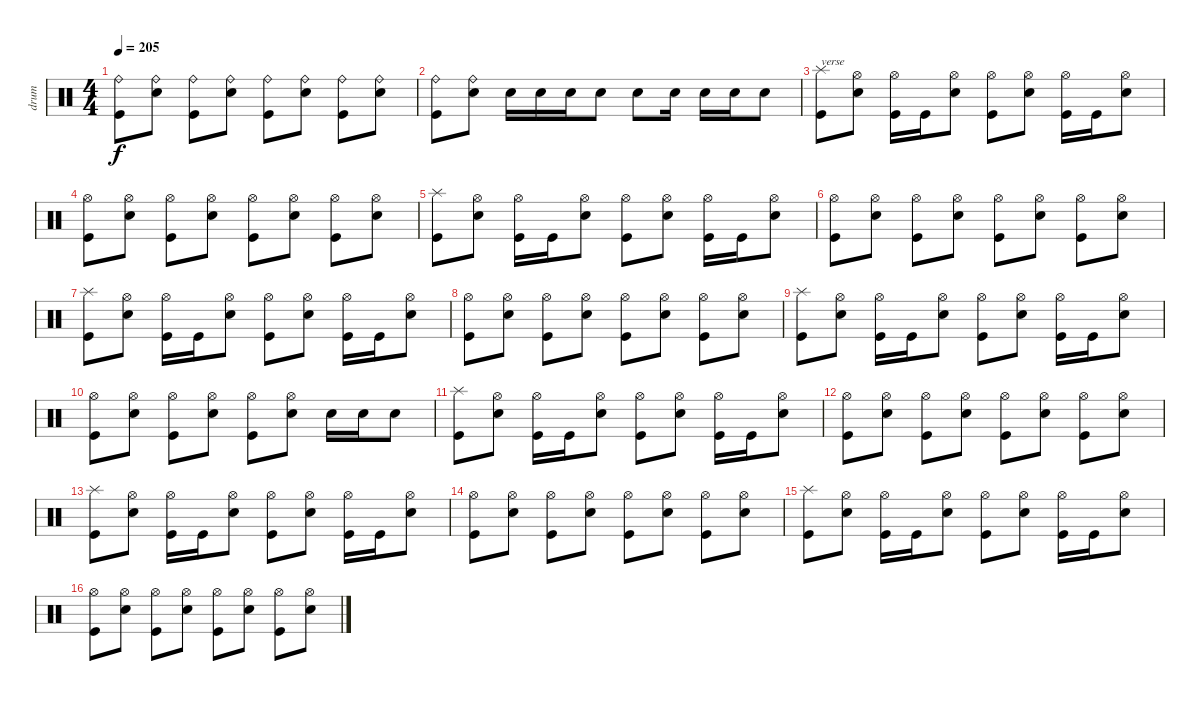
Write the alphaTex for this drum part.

\track ("drum" "drum") {instrument percussion}
\staff {score}
\articulation defaults
\ts (4 4)
\tempo 205
\clef neutral
\ks c
("Kick (hit)" "Ride (bell)").8{dy f} ("Electric Snare (hit)" "Ride (bell)").8 ("Kick (hit)" "Ride (bell)").8 ("Electric Snare (hit)" "Ride (bell)").8 ("Kick (hit)" "Ride (bell)").8 ("Electric Snare (hit)" "Ride (bell)").8 ("Kick (hit)" "Ride (bell)").8 ("Electric Snare (hit)" "Ride (bell)").8 |
("Kick (hit)" "Ride (bell)").8 ("Electric Snare (hit)" "Ride (bell)").8 "Electric Snare (hit)".16 "Electric Snare (hit)".16 "Electric Snare (hit)".16 "Electric Snare (hit)".8 "Electric Snare (hit)".8 "Electric Snare (hit)".16 "Electric Snare (hit)".16 "Electric Snare (hit)".16 "Electric Snare (hit)".8 |
("Kick (hit)" "Splash (hit)").8{txt "verse"} ("Electric Snare (hit)" "Hi-Hat (open)").8 ("Kick (hit)" "Hi-Hat (open)").16 "Kick (hit)".16 ("Electric Snare (hit)" "Hi-Hat (open)").8 ("Kick (hit)" "Hi-Hat (open)").8 ("Electric Snare (hit)" "Hi-Hat (open)").8 ("Kick (hit)" "Hi-Hat (open)").16 "Kick (hit)".16 ("Electric Snare (hit)" "Hi-Hat (open)").8 |
("Kick (hit)" "Hi-Hat (open)").8 ("Electric Snare (hit)" "Hi-Hat (open)").8 ("Kick (hit)" "Hi-Hat (open)").8 ("Electric Snare (hit)" "Hi-Hat (open)").8 ("Kick (hit)" "Hi-Hat (open)").8 ("Electric Snare (hit)" "Hi-Hat (open)").8 ("Kick (hit)" "Hi-Hat (open)").8 ("Electric Snare (hit)" "Hi-Hat (open)").8 |
("Kick (hit)" "Splash (hit)").8 ("Electric Snare (hit)" "Hi-Hat (open)").8 ("Kick (hit)" "Hi-Hat (open)").16 "Kick (hit)".16 ("Electric Snare (hit)" "Hi-Hat (open)").8 ("Kick (hit)" "Hi-Hat (open)").8 ("Electric Snare (hit)" "Hi-Hat (open)").8 ("Kick (hit)" "Hi-Hat (open)").16 "Kick (hit)".16 ("Electric Snare (hit)" "Hi-Hat (open)").8 |
("Kick (hit)" "Hi-Hat (open)").8 ("Electric Snare (hit)" "Hi-Hat (open)").8 ("Kick (hit)" "Hi-Hat (open)").8 ("Electric Snare (hit)" "Hi-Hat (open)").8 ("Kick (hit)" "Hi-Hat (open)").8 ("Electric Snare (hit)" "Hi-Hat (open)").8 ("Kick (hit)" "Hi-Hat (open)").8 ("Electric Snare (hit)" "Hi-Hat (open)").8 |
("Kick (hit)" "Splash (hit)").8 ("Electric Snare (hit)" "Hi-Hat (open)").8 ("Kick (hit)" "Hi-Hat (open)").16 "Kick (hit)".16 ("Electric Snare (hit)" "Hi-Hat (open)").8 ("Kick (hit)" "Hi-Hat (open)").8 ("Electric Snare (hit)" "Hi-Hat (open)").8 ("Kick (hit)" "Hi-Hat (open)").16 "Kick (hit)".16 ("Electric Snare (hit)" "Hi-Hat (open)").8 |
("Kick (hit)" "Hi-Hat (open)").8 ("Electric Snare (hit)" "Hi-Hat (open)").8 ("Kick (hit)" "Hi-Hat (open)").8 ("Electric Snare (hit)" "Hi-Hat (open)").8 ("Kick (hit)" "Hi-Hat (open)").8 ("Electric Snare (hit)" "Hi-Hat (open)").8 ("Kick (hit)" "Hi-Hat (open)").8 ("Electric Snare (hit)" "Hi-Hat (open)").8 |
("Kick (hit)" "Splash (hit)").8 ("Electric Snare (hit)" "Hi-Hat (open)").8 ("Kick (hit)" "Hi-Hat (open)").16 "Kick (hit)".16 ("Electric Snare (hit)" "Hi-Hat (open)").8 ("Kick (hit)" "Hi-Hat (open)").8 ("Electric Snare (hit)" "Hi-Hat (open)").8 ("Kick (hit)" "Hi-Hat (open)").16 "Kick (hit)".16 ("Electric Snare (hit)" "Hi-Hat (open)").8 |
("Kick (hit)" "Hi-Hat (open)").8 ("Electric Snare (hit)" "Hi-Hat (open)").8 ("Kick (hit)" "Hi-Hat (open)").8 ("Electric Snare (hit)" "Hi-Hat (open)").8 ("Kick (hit)" "Hi-Hat (open)").8 ("Electric Snare (hit)" "Hi-Hat (open)").8 "Electric Snare (hit)".16 "Electric Snare (hit)".16 "Electric Snare (hit)".8 |
("Kick (hit)" "Splash (hit)").8 ("Electric Snare (hit)" "Hi-Hat (open)").8 ("Kick (hit)" "Hi-Hat (open)").16 "Kick (hit)".16 ("Electric Snare (hit)" "Hi-Hat (open)").8 ("Kick (hit)" "Hi-Hat (open)").8 ("Electric Snare (hit)" "Hi-Hat (open)").8 ("Kick (hit)" "Hi-Hat (open)").16 "Kick (hit)".16 ("Electric Snare (hit)" "Hi-Hat (open)").8 |
("Kick (hit)" "Hi-Hat (open)").8 ("Electric Snare (hit)" "Hi-Hat (open)").8 ("Kick (hit)" "Hi-Hat (open)").8 ("Electric Snare (hit)" "Hi-Hat (open)").8 ("Kick (hit)" "Hi-Hat (open)").8 ("Electric Snare (hit)" "Hi-Hat (open)").8 ("Kick (hit)" "Hi-Hat (open)").8 ("Electric Snare (hit)" "Hi-Hat (open)").8 |
("Kick (hit)" "Splash (hit)").8 ("Electric Snare (hit)" "Hi-Hat (open)").8 ("Kick (hit)" "Hi-Hat (open)").16 "Kick (hit)".16 ("Electric Snare (hit)" "Hi-Hat (open)").8 ("Kick (hit)" "Hi-Hat (open)").8 ("Electric Snare (hit)" "Hi-Hat (open)").8 ("Kick (hit)" "Hi-Hat (open)").16 "Kick (hit)".16 ("Electric Snare (hit)" "Hi-Hat (open)").8 |
("Kick (hit)" "Hi-Hat (open)").8 ("Electric Snare (hit)" "Hi-Hat (open)").8 ("Kick (hit)" "Hi-Hat (open)").8 ("Electric Snare (hit)" "Hi-Hat (open)").8 ("Kick (hit)" "Hi-Hat (open)").8 ("Electric Snare (hit)" "Hi-Hat (open)").8 ("Kick (hit)" "Hi-Hat (open)").8 ("Electric Snare (hit)" "Hi-Hat (open)").8 |
("Kick (hit)" "Splash (hit)").8 ("Electric Snare (hit)" "Hi-Hat (open)").8 ("Kick (hit)" "Hi-Hat (open)").16 "Kick (hit)".16 ("Electric Snare (hit)" "Hi-Hat (open)").8 ("Kick (hit)" "Hi-Hat (open)").8 ("Electric Snare (hit)" "Hi-Hat (open)").8 ("Kick (hit)" "Hi-Hat (open)").16 "Kick (hit)".16 ("Electric Snare (hit)" "Hi-Hat (open)").8 |
("Kick (hit)" "Hi-Hat (open)").8 ("Electric Snare (hit)" "Hi-Hat (open)").8 ("Kick (hit)" "Hi-Hat (open)").8 ("Electric Snare (hit)" "Hi-Hat (open)").8 ("Kick (hit)" "Hi-Hat (open)").8 ("Electric Snare (hit)" "Hi-Hat (open)").8 ("Kick (hit)" "Hi-Hat (open)").8 ("Electric Snare (hit)" "Hi-Hat (open)").8
